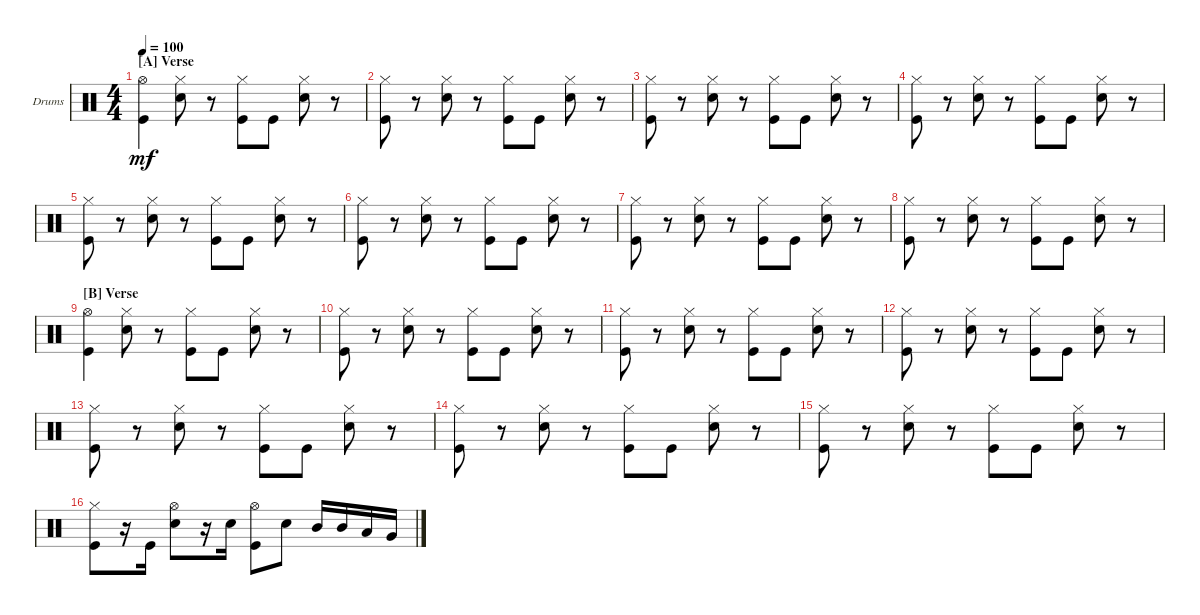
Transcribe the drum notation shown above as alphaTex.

\defaultSystemsLayout 4
\bracketExtendMode groupsimilarinstruments
\firstSystemTrackNameOrientation horizontal
\otherSystemsTrackNameOrientation horizontal
\track ("Drumkit" "Drums") {instrument percussion}
\staff {score}
\articulation defaults
\ts (4 4)
\section ("A" "Verse")
\tempo 100
\clef neutral
\ks c
("Kick (hit)" "Hi-Hat (open)").4{dy mf} ("Hi-Hat (closed)" "Snare (hit) 2").8 r.8 ("Hi-Hat (closed)" "Kick (hit)").8 "Kick (hit)".8 ("Hi-Hat (closed)" "Snare (hit) 2").8 r.8 |
("Hi-Hat (closed)" "Kick (hit)").8 r.8 ("Hi-Hat (closed)" "Snare (hit) 2").8 r.8 ("Hi-Hat (closed)" "Kick (hit)").8 "Kick (hit)".8 ("Hi-Hat (closed)" "Snare (hit) 2").8 r.8 |
("Hi-Hat (closed)" "Kick (hit)").8 r.8 ("Hi-Hat (closed)" "Snare (hit) 2").8 r.8 ("Hi-Hat (closed)" "Kick (hit)").8 "Kick (hit)".8 ("Hi-Hat (closed)" "Snare (hit) 2").8 r.8 |
("Hi-Hat (closed)" "Kick (hit)").8 r.8 ("Hi-Hat (closed)" "Snare (hit) 2").8 r.8 ("Hi-Hat (closed)" "Kick (hit)").8 "Kick (hit)".8 ("Hi-Hat (closed)" "Snare (hit) 2").8 r.8 |
("Hi-Hat (closed)" "Kick (hit)").8 r.8 ("Hi-Hat (closed)" "Snare (hit) 2").8 r.8 ("Hi-Hat (closed)" "Kick (hit)").8 "Kick (hit)".8 ("Hi-Hat (closed)" "Snare (hit) 2").8 r.8 |
("Hi-Hat (closed)" "Kick (hit)").8 r.8 ("Hi-Hat (closed)" "Snare (hit) 2").8 r.8 ("Hi-Hat (closed)" "Kick (hit)").8 "Kick (hit)".8 ("Hi-Hat (closed)" "Snare (hit) 2").8 r.8 |
("Hi-Hat (closed)" "Kick (hit)").8 r.8 ("Hi-Hat (closed)" "Snare (hit) 2").8 r.8 ("Hi-Hat (closed)" "Kick (hit)").8 "Kick (hit)".8 ("Hi-Hat (closed)" "Snare (hit) 2").8 r.8 |
("Hi-Hat (closed)" "Kick (hit)").8 r.8 ("Hi-Hat (closed)" "Snare (hit) 2").8 r.8 ("Hi-Hat (closed)" "Kick (hit)").8 "Kick (hit)".8 ("Hi-Hat (closed)" "Snare (hit) 2").8 r.8 |
\section ("B" "Verse")
("Kick (hit)" "Hi-Hat (open)").4 ("Hi-Hat (closed)" "Snare (hit) 2").8 r.8 ("Hi-Hat (closed)" "Kick (hit)").8 "Kick (hit)".8 ("Hi-Hat (closed)" "Snare (hit) 2").8 r.8 |
("Hi-Hat (closed)" "Kick (hit)").8 r.8 ("Hi-Hat (closed)" "Snare (hit) 2").8 r.8 ("Hi-Hat (closed)" "Kick (hit)").8 "Kick (hit)".8 ("Hi-Hat (closed)" "Snare (hit) 2").8 r.8 |
("Hi-Hat (closed)" "Kick (hit)").8 r.8 ("Hi-Hat (closed)" "Snare (hit) 2").8 r.8 ("Hi-Hat (closed)" "Kick (hit)").8 "Kick (hit)".8 ("Hi-Hat (closed)" "Snare (hit) 2").8 r.8 |
("Hi-Hat (closed)" "Kick (hit)").8 r.8 ("Hi-Hat (closed)" "Snare (hit) 2").8 r.8 ("Hi-Hat (closed)" "Kick (hit)").8 "Kick (hit)".8 ("Hi-Hat (closed)" "Snare (hit) 2").8 r.8 |
("Hi-Hat (closed)" "Kick (hit)").8 r.8 ("Hi-Hat (closed)" "Snare (hit) 2").8 r.8 ("Hi-Hat (closed)" "Kick (hit)").8 "Kick (hit)".8 ("Hi-Hat (closed)" "Snare (hit) 2").8 r.8 |
("Hi-Hat (closed)" "Kick (hit)").8 r.8 ("Hi-Hat (closed)" "Snare (hit) 2").8 r.8 ("Hi-Hat (closed)" "Kick (hit)").8 "Kick (hit)".8 ("Hi-Hat (closed)" "Snare (hit) 2").8 r.8 |
("Hi-Hat (closed)" "Kick (hit)").8 r.8 ("Hi-Hat (closed)" "Snare (hit) 2").8 r.8 ("Hi-Hat (closed)" "Kick (hit)").8 "Kick (hit)".8 ("Hi-Hat (closed)" "Snare (hit) 2").8 r.8 |
("Hi-Hat (closed)" "Kick (hit)").8 r.16 "Kick (hit)".16 ("Snare (hit) 2" "Hi-Hat (open)").8 r.16 "Snare (hit) 2".16 ("Kick (hit)" "Hi-Hat (open)").8 "Snare (hit) 2".8 "Mid Tom (hit)".16 "Mid Tom (hit)".16 "Low Tom (hit)".16 "Very Low Tom (hit)".16
